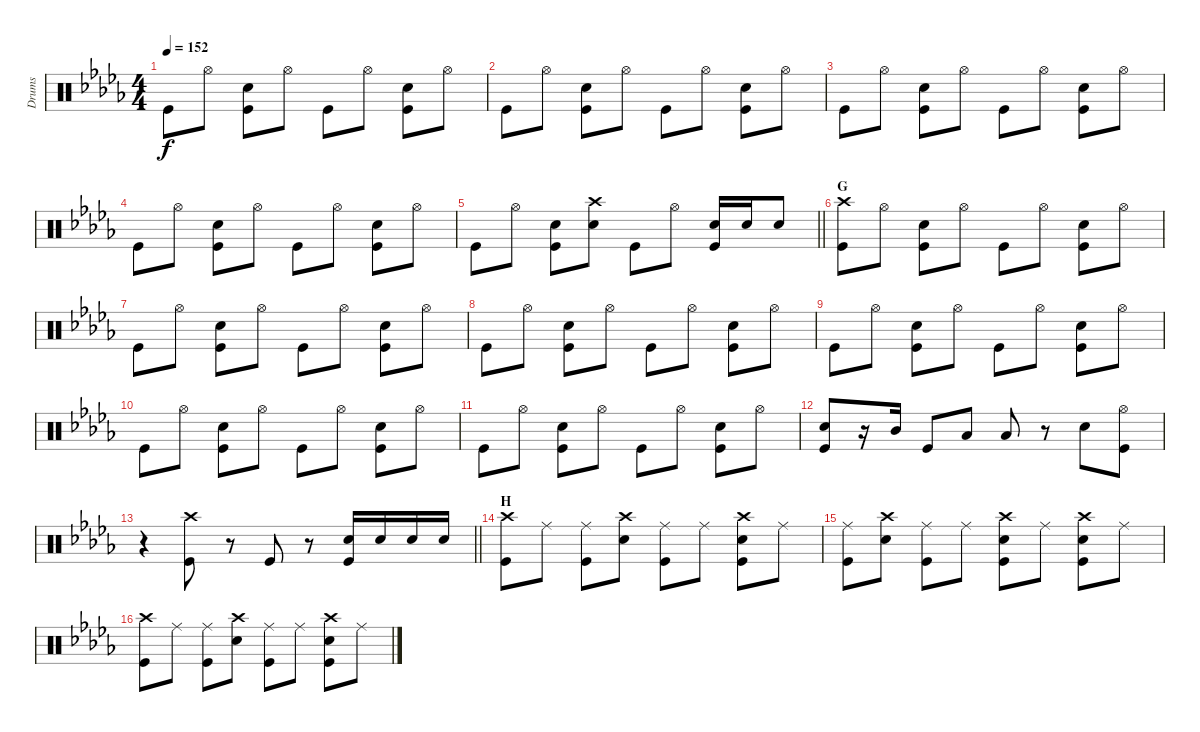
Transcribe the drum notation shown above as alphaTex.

\track ("Drums" "Drums") {instrument percussion}
\staff {score}
\articulation defaults
\ts (4 4)
\tempo 152
\clef neutral
\ks db "Kick (hit)".8{dy f} "Hi-Hat (open)".8
("Snare (hit) 2" "Kick (hit)").8 "Hi-Hat (open)".8 "Kick (hit)".8 "Hi-Hat (open)".8 ("Snare (hit) 2" "Kick (hit)").8 "Hi-Hat (open)".8 |
"Kick (hit)".8 "Hi-Hat (open)".8 ("Snare (hit) 2" "Kick (hit)").8 "Hi-Hat (open)".8 "Kick (hit)".8 "Hi-Hat (open)".8 ("Snare (hit) 2" "Kick (hit)").8 "Hi-Hat (open)".8 |
"Kick (hit)".8 "Hi-Hat (open)".8 ("Snare (hit) 2" "Kick (hit)").8 "Hi-Hat (open)".8 "Kick (hit)".8 "Hi-Hat (open)".8 ("Snare (hit) 2" "Kick (hit)").8 "Hi-Hat (open)".8 |
"Kick (hit)".8 "Hi-Hat (open)".8 ("Snare (hit) 2" "Kick (hit)").8 "Hi-Hat (open)".8 "Kick (hit)".8 "Hi-Hat (open)".8 ("Snare (hit) 2" "Kick (hit)").8 "Hi-Hat (open)".8 |
\barLineRight lightlight "Kick (hit)".8 "Hi-Hat (open)".8
("Snare (hit) 2" "Kick (hit)").8 ("Crash high (hit)" "Snare (hit) 2").8 "Kick (hit)".8 "Hi-Hat (open)".8 ("Snare (hit) 2" "Kick (hit)").16 "Snare (hit) 2".16 "Snare (hit) 2".8 |
\section ("" "G")
("Crash high (hit)" "Kick (hit)").8 "Hi-Hat (open)".8 ("Snare (hit) 2" "Kick (hit)").8 "Hi-Hat (open)".8 "Kick (hit)".8 "Hi-Hat (open)".8 ("Snare (hit) 2" "Kick (hit)").8 "Hi-Hat (open)".8 |
"Kick (hit)".8 "Hi-Hat (open)".8 ("Snare (hit) 2" "Kick (hit)").8 "Hi-Hat (open)".8 "Kick (hit)".8 "Hi-Hat (open)".8 ("Snare (hit) 2" "Kick (hit)").8 "Hi-Hat (open)".8 |
"Kick (hit)".8 "Hi-Hat (open)".8 ("Snare (hit) 2" "Kick (hit)").8 "Hi-Hat (open)".8 "Kick (hit)".8 "Hi-Hat (open)".8 ("Snare (hit) 2" "Kick (hit)").8 "Hi-Hat (open)".8 |
"Kick (hit)".8 "Hi-Hat (open)".8 ("Snare (hit) 2" "Kick (hit)").8 "Hi-Hat (open)".8 "Kick (hit)".8 "Hi-Hat (open)".8 ("Snare (hit) 2" "Kick (hit)").8 "Hi-Hat (open)".8 |
"Kick (hit)".8 "Hi-Hat (open)".8 ("Snare (hit) 2" "Kick (hit)").8 "Hi-Hat (open)".8 "Kick (hit)".8 "Hi-Hat (open)".8 ("Snare (hit) 2" "Kick (hit)").8 "Hi-Hat (open)".8 |
"Kick (hit)".8 "Hi-Hat (open)".8 ("Snare (hit) 2" "Kick (hit)").8 "Hi-Hat (open)".8 "Kick (hit)".8 "Hi-Hat (open)".8 ("Snare (hit) 2" "Kick (hit)").8 "Hi-Hat (open)".8 |
("Snare (hit) 2" "Kick (hit)").8 r.16 "Mid Tom (hit)".16 "Kick (hit)".8 "Low Tom (hit)".8 "Low Tom (hit)".8 r.8 "Snare (hit) 2".8 ("Hi-Hat (open)" "Kick (hit)").8 |
\barLineRight lightlight
r.4 ("Crash high (hit)" "Kick (hit)").8 r.8 "Kick (hit)".8 r.8 ("Snare (hit) 2" "Kick (hit)").16 "Snare (hit) 2".16 "Snare (hit) 2".16 "Snare (hit) 2".16 |
\section ("" "H")
("Crash high (hit)" "Kick (hit)").8 "Ride (middle)".8 ("Ride (middle)" "Kick (hit)").8 ("Crash high (hit)" "Snare (hit) 2").8 ("Ride (middle)" "Kick (hit)").8 "Ride (middle)".8 ("Crash high (hit)" "Snare (hit) 2" "Kick (hit)").8 "Ride (middle)".8 |
("Ride (middle)" "Kick (hit)").8 ("Crash high (hit)" "Snare (hit) 2").8 ("Ride (middle)" "Kick (hit)").8 "Ride (middle)".8 ("Crash high (hit)" "Snare (hit) 2" "Kick (hit)").8 "Ride (middle)".8 ("Crash high (hit)" "Snare (hit) 2" "Kick (hit)").8 "Ride (middle)".8 |
("Crash high (hit)" "Kick (hit)").8 "Ride (middle)".8 ("Ride (middle)" "Kick (hit)").8 ("Crash high (hit)" "Snare (hit) 2").8 ("Ride (middle)" "Kick (hit)").8 "Ride (middle)".8 ("Crash high (hit)" "Snare (hit) 2" "Kick (hit)").8 "Ride (middle)".8
